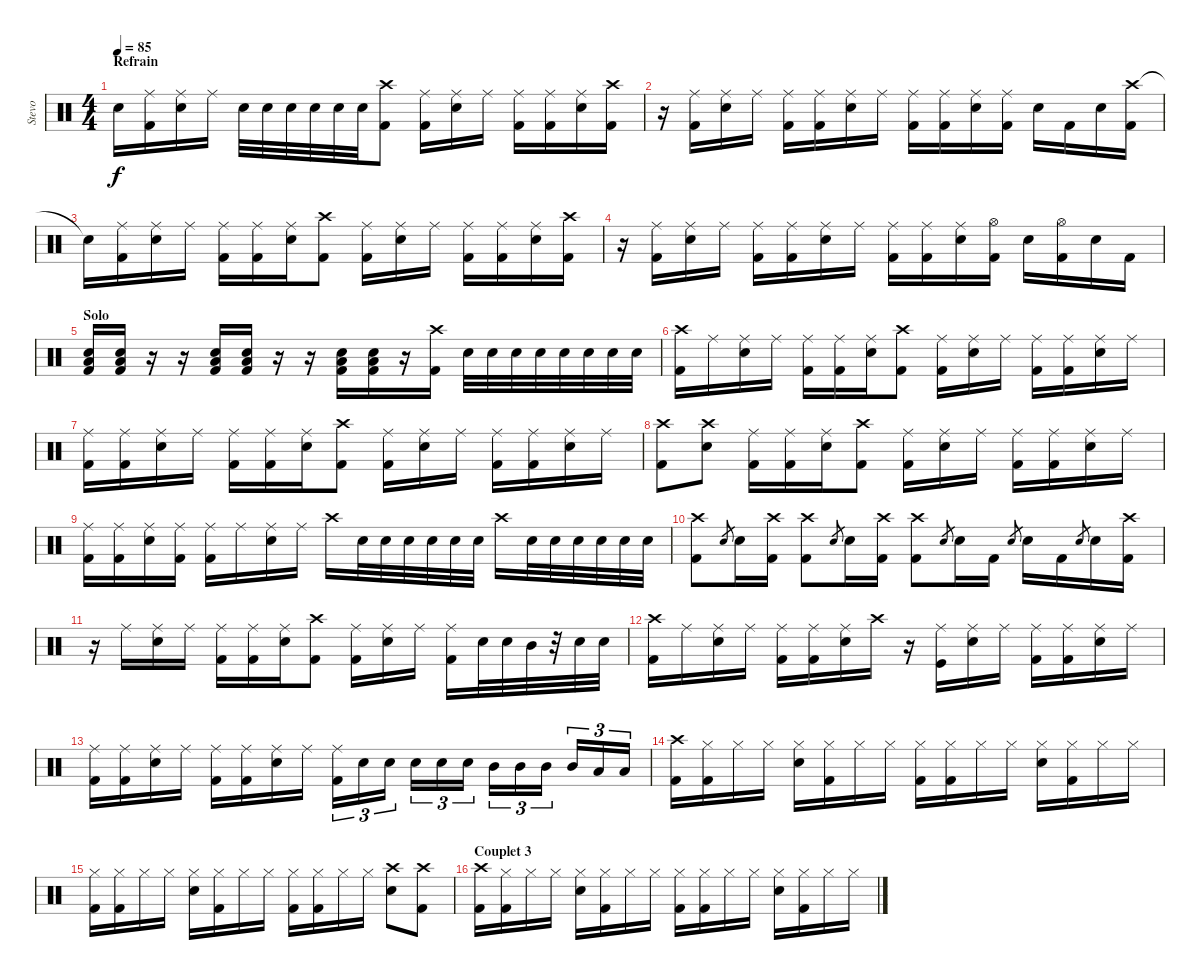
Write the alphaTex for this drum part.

\track ("Stevo" "Stevo") {instrument percussion}
\staff {score}
\articulation defaults
\ts (4 4)
\section ("" "Refrain")
\tempo 85
\clef neutral
\ks c "Snare (hit)"{t}.16{dy f}
("Ride (middle)" "Kick (hit) 2").16 ("Ride (middle)" "Electric Snare (hit)").16 "Ride (middle)".16 "Electric Snare (hit)".32 "Electric Snare (hit)".32 "Electric Snare (hit)".32 "Electric Snare (hit)".32 "Electric Snare (hit)".32 "Electric Snare (hit)".32 ("Crash high (hit)" "Kick (hit) 2").8 ("Ride (middle)" "Kick (hit) 2").16 ("Ride (middle)" "Electric Snare (hit)").16 "Ride (middle)".16 ("Ride (middle)" "Kick (hit) 2").16 ("Ride (middle)" "Kick (hit) 2").16 ("Ride (middle)" "Electric Snare (hit)").16 ("Crash high (hit)" "Kick (hit) 2").16 |
r.16 ("Ride (middle)" "Kick (hit) 2").16 ("Ride (middle)" "Electric Snare (hit)").16 "Ride (middle)".16 ("Ride (middle)" "Kick (hit) 2").16 ("Ride (middle)" "Kick (hit) 2").16 ("Ride (middle)" "Electric Snare (hit)").16 "Ride (middle)".16 ("Ride (middle)" "Kick (hit) 2").16 ("Ride (middle)" "Kick (hit) 2").16 ("Ride (middle)" "Electric Snare (hit)").16 ("Ride (middle)" "Kick (hit) 2").16 "Electric Snare (hit)".16 "Kick (hit) 2".16 "Electric Snare (hit)".16 ("Crash high (hit)" "Kick (hit) 2").16 |
"Snare (hit)"{t}.16 ("Ride (middle)" "Kick (hit) 2").16 ("Ride (middle)" "Electric Snare (hit)").16 "Ride (middle)".16 ("Ride (middle)" "Kick (hit) 2").16 ("Ride (middle)" "Kick (hit) 2").16 ("Ride (middle)" "Electric Snare (hit)").16 ("Crash high (hit)" "Kick (hit) 2").8 ("Ride (middle)" "Kick (hit) 2").16 ("Ride (middle)" "Electric Snare (hit)").16 "Ride (middle)".16 ("Ride (middle)" "Kick (hit) 2").16 ("Ride (middle)" "Kick (hit) 2").16 ("Ride (middle)" "Electric Snare (hit)").16 ("Crash high (hit)" "Kick (hit) 2").16 |
r.16 ("Ride (middle)" "Kick (hit) 2").16 ("Ride (middle)" "Electric Snare (hit)").16 "Ride (middle)".16 ("Ride (middle)" "Kick (hit) 2").16 ("Ride (middle)" "Kick (hit) 2").16 ("Ride (middle)" "Electric Snare (hit)").16 "Ride (middle)".16 ("Ride (middle)" "Kick (hit) 2").16 ("Ride (middle)" "Kick (hit) 2").16 ("Ride (middle)" "Electric Snare (hit)").16 ("Hi-Hat (open)" "Kick (hit) 2").16 "Electric Snare (hit)".16 ("Hi-Hat (open)" "Kick (hit) 2").16 "Electric Snare (hit)".16 "Kick (hit) 2".16 |
\section ("" "Solo")
("Electric Snare (hit)" "Low Tom (hit)" "Kick (hit) 2").16 ("Electric Snare (hit)" "Low Tom (hit)" "Kick (hit) 2").16 r.16 r.16 ("Electric Snare (hit)" "Low Tom (hit)" "Kick (hit) 2").16 ("Electric Snare (hit)" "Low Tom (hit)" "Kick (hit) 2").16 r.16 r.16 ("Electric Snare (hit)" "Low Tom (hit)" "Kick (hit) 2").16 ("Electric Snare (hit)" "Low Tom (hit)" "Kick (hit) 2").16 r.16 ("Crash high (hit)" "Kick (hit) 2").16 "Electric Snare (hit)".32 "Electric Snare (hit)".32 "Electric Snare (hit)".32 "Electric Snare (hit)".32 "Electric Snare (hit)".32 "Electric Snare (hit)".32 "Electric Snare (hit)".32 "Electric Snare (hit)".32 |
("Crash high (hit)" "Kick (hit) 2").16 "Ride (middle)".16 ("Ride (middle)" "Electric Snare (hit)").16 "Ride (middle)".16 ("Ride (middle)" "Kick (hit) 2").16 ("Ride (middle)" "Kick (hit) 2").16 ("Ride (middle)" "Electric Snare (hit)").16 ("Crash high (hit)" "Kick (hit) 2").8 ("Ride (middle)" "Kick (hit) 2").16 ("Ride (middle)" "Electric Snare (hit)").16 "Ride (middle)".16 ("Ride (middle)" "Kick (hit) 2").16 ("Ride (middle)" "Kick (hit) 2").16 ("Ride (middle)" "Electric Snare (hit)").16 "Ride (middle)".16 |
("Ride (middle)" "Kick (hit) 2").16 ("Ride (middle)" "Kick (hit) 2").16 ("Ride (middle)" "Electric Snare (hit)").16 "Ride (middle)".16 ("Ride (middle)" "Kick (hit) 2").16 ("Ride (middle)" "Kick (hit) 2").16 ("Ride (middle)" "Electric Snare (hit)").16 ("Crash high (hit)" "Kick (hit) 2").8 ("Ride (middle)" "Kick (hit) 2").16 ("Ride (middle)" "Electric Snare (hit)").16 "Ride (middle)".16 ("Ride (middle)" "Kick (hit) 2").16 ("Ride (middle)" "Kick (hit) 2").16 ("Ride (middle)" "Electric Snare (hit)").16 "Ride (middle)".16 |
("Crash high (hit)" "Kick (hit) 2").8 ("Crash high (hit)" "Electric Snare (hit)").8 ("Ride (middle)" "Kick (hit) 2").16 ("Ride (middle)" "Kick (hit) 2").16 ("Ride (middle)" "Electric Snare (hit)").16 ("Crash high (hit)" "Kick (hit) 2").8 ("Ride (middle)" "Kick (hit) 2").16 ("Ride (middle)" "Electric Snare (hit)").16 "Ride (middle)".16 ("Ride (middle)" "Kick (hit) 2").16 ("Ride (middle)" "Kick (hit) 2").16 ("Ride (middle)" "Electric Snare (hit)").16 "Ride (middle)".16 |
("Ride (middle)" "Kick (hit) 2").16 ("Ride (middle)" "Kick (hit) 2").16 ("Ride (middle)" "Electric Snare (hit)").16 ("Ride (middle)" "Kick (hit) 2").16 ("Ride (middle)" "Kick (hit) 2").16 "Ride (middle)".16 ("Ride (middle)" "Electric Snare (hit)").16 "Ride (middle)".16 "Crash high (hit)".16 "Electric Snare (hit)".32 "Electric Snare (hit)".32 "Electric Snare (hit)".32 "Electric Snare (hit)".32 "Electric Snare (hit)".32 "Electric Snare (hit)".32 "Crash high (hit)".16 "Electric Snare (hit)".32 "Electric Snare (hit)".32 "Electric Snare (hit)".32 "Electric Snare (hit)".32 "Electric Snare (hit)".32 "Electric Snare (hit)".32 |
("Crash high (hit)" "Kick (hit) 2").8 "Electric Snare (hit)".8{gr} "Electric Snare (hit)".16 ("Crash high (hit)" "Kick (hit) 2").16 ("Crash high (hit)" "Kick (hit) 2").8 "Electric Snare (hit)".8{gr} "Electric Snare (hit)".16 ("Crash high (hit)" "Kick (hit) 2").16 ("Crash high (hit)" "Kick (hit) 2").8 "Electric Snare (hit)".8{gr} "Electric Snare (hit)".16 "Kick (hit) 2".16 "Electric Snare (hit)".8{gr} "Electric Snare (hit)".16 "Kick (hit) 2".16 "Electric Snare (hit)".8{gr} "Electric Snare (hit)".16 ("Crash high (hit)" "Kick (hit) 2").16 |
r.16 "Ride (middle)".16 ("Ride (middle)" "Electric Snare (hit)").16 "Ride (middle)".16 ("Ride (middle)" "Kick (hit) 2").16 ("Ride (middle)" "Kick (hit) 2").16 ("Ride (middle)" "Electric Snare (hit)").16 ("Crash high (hit)" "Kick (hit) 2").8 ("Ride (middle)" "Kick (hit) 2").16 ("Ride (middle)" "Electric Snare (hit)").16 "Ride (middle)".16 ("Ride (middle)" "Kick (hit) 2").16 "Electric Snare (hit)".32 "Electric Snare (hit)".32 "Mid Tom (hit)".32 r.32 "Electric Snare (hit)".32 "Electric Snare (hit)".32 |
("Crash high (hit)" "Kick (hit) 2").16 "Ride (middle)".16 ("Ride (middle)" "Electric Snare (hit)").16 "Ride (middle)".16 ("Ride (middle)" "Kick (hit) 2").16 ("Ride (middle)" "Kick (hit) 2").16 ("Ride (middle)" "Electric Snare (hit)").16 "Crash high (hit)".16 r.16 ("Ride (middle)" "Kick (hit)").16 ("Ride (middle)" "Electric Snare (hit)").16 "Ride (middle)".16 ("Ride (middle)" "Kick (hit) 2").16 ("Ride (middle)" "Kick (hit) 2").16 ("Ride (middle)" "Electric Snare (hit)").16 "Ride (middle)".16 |
("Ride (middle)" "Kick (hit) 2").16 ("Ride (middle)" "Kick (hit) 2").16 ("Ride (middle)" "Electric Snare (hit)").16 "Ride (middle)".16 ("Ride (middle)" "Kick (hit) 2").16 ("Ride (middle)" "Kick (hit) 2").16 ("Ride (middle)" "Electric Snare (hit)").16 "Ride (middle)".16 ("Ride (middle)" "Kick (hit) 2").16{tu (3 2)} "Electric Snare (hit)".16{tu (3 2)} "Electric Snare (hit)".16{tu (3 2) beam splitsecondary} "Electric Snare (hit)".16{tu (3 2)} "Electric Snare (hit)".16{tu (3 2)} "Electric Snare (hit)".16{tu (3 2)} "Mid Tom (hit)".16{tu (3 2)} "Mid Tom (hit)".16{tu (3 2)} "Mid Tom (hit)".16{tu (3 2) beam splitsecondary} "Mid Tom (hit)".16{tu (3 2)} "Low Tom (hit)".16{tu (3 2)} "Low Tom (hit)".16{tu (3 2)} |
("Crash high (hit)" "Kick (hit) 2").16 ("Hi-Hat (closed)" "Kick (hit) 2").16 "Hi-Hat (closed)".16 "Hi-Hat (closed)".16 ("Hi-Hat (closed)" "Electric Snare (hit)").16 ("Hi-Hat (closed)" "Kick (hit) 2").16 "Hi-Hat (closed)".16 "Hi-Hat (closed)".16 ("Hi-Hat (closed)" "Kick (hit) 2").16 ("Hi-Hat (closed)" "Kick (hit) 2").16 "Hi-Hat (closed)".16 "Hi-Hat (closed)".16 ("Hi-Hat (closed)" "Electric Snare (hit)").16 ("Hi-Hat (closed)" "Kick (hit) 2").16 "Hi-Hat (closed)".16 "Hi-Hat (closed)".16 |
("Hi-Hat (closed)" "Kick (hit) 2").16 ("Hi-Hat (closed)" "Kick (hit) 2").16 "Hi-Hat (closed)".16 "Hi-Hat (closed)".16 ("Hi-Hat (closed)" "Electric Snare (hit)").16 ("Hi-Hat (closed)" "Kick (hit) 2").16 "Hi-Hat (closed)".16 "Hi-Hat (closed)".16 ("Hi-Hat (closed)" "Kick (hit) 2").16 ("Hi-Hat (closed)" "Kick (hit) 2").16 "Hi-Hat (closed)".16 "Hi-Hat (closed)".16 ("Crash high (hit)" "Electric Snare (hit)").8 ("Crash high (hit)" "Kick (hit) 2").8 |
\section ("" "Couplet 3")
("Crash high (hit)" "Kick (hit) 2").16 ("Hi-Hat (closed)" "Kick (hit) 2").16 "Hi-Hat (closed)".16 "Hi-Hat (closed)".16 ("Hi-Hat (closed)" "Electric Snare (hit)").16 ("Hi-Hat (closed)" "Kick (hit) 2").16 "Hi-Hat (closed)".16 "Hi-Hat (closed)".16 ("Hi-Hat (closed)" "Kick (hit) 2").16 ("Hi-Hat (closed)" "Kick (hit) 2").16 "Hi-Hat (closed)".16 "Hi-Hat (closed)".16 ("Hi-Hat (closed)" "Electric Snare (hit)").16 ("Hi-Hat (closed)" "Kick (hit) 2").16 "Hi-Hat (closed)".16 "Hi-Hat (closed)".16
